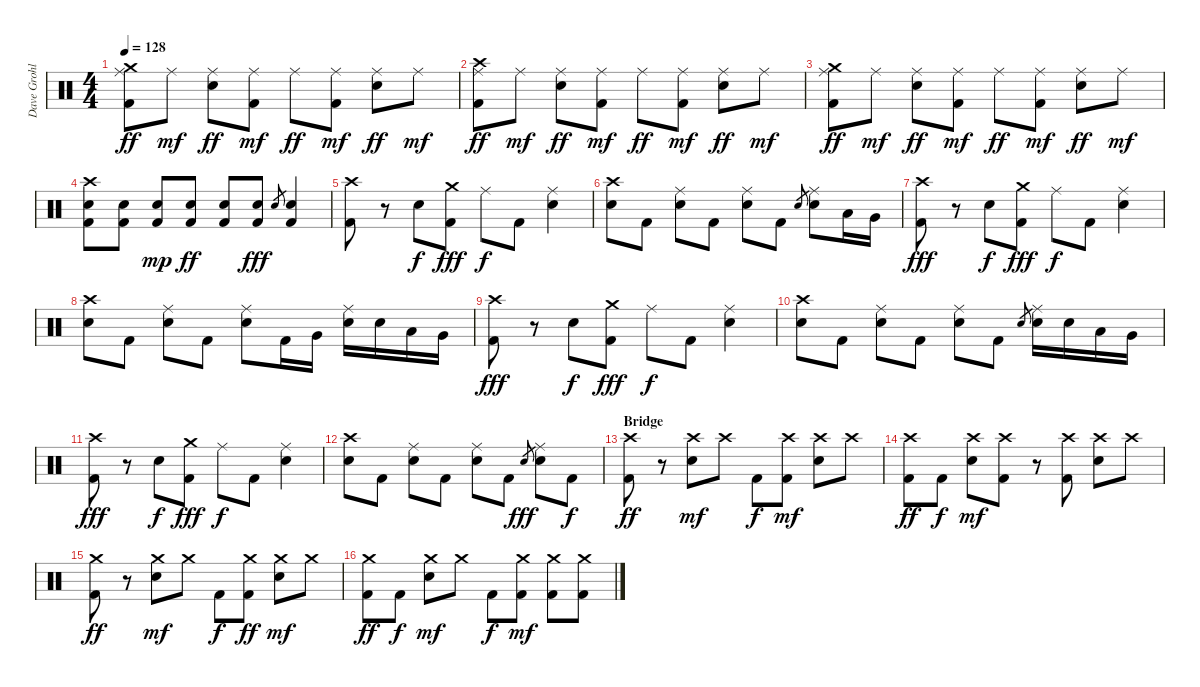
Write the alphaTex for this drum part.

\track ("Dave Grohl" "Dave Grohl") {instrument percussion}
\staff {score}
\articulation defaults
\ts (4 4)
\tempo 128
\clef neutral
\ks c
("Crash medium (hit)" "Ride (middle)" "Kick (hit) 2").8{dy ff} "Ride (middle)".8{dy mf} ("Ride (middle)" "Snare (hit) 2").8{dy ff} ("Ride (middle)" "Kick (hit) 2").8{dy mf} "Ride (middle)".8{dy ff} ("Ride (middle)" "Kick (hit) 2").8{dy mf} ("Ride (middle)" "Snare (hit) 2").8{dy ff} "Ride (middle)".8{dy mf} |
("Crash high (hit)" "Ride (middle)" "Kick (hit) 2").8{dy ff} "Ride (middle)".8{dy mf} ("Ride (middle)" "Snare (hit) 2").8{dy ff} ("Ride (middle)" "Kick (hit) 2").8{dy mf} "Ride (middle)".8{dy ff} ("Ride (middle)" "Kick (hit) 2").8{dy mf} ("Ride (middle)" "Snare (hit) 2").8{dy ff} "Ride (middle)".8{dy mf} |
("Crash medium (hit)" "Ride (middle)" "Kick (hit) 2").8{dy ff} "Ride (middle)".8{dy mf} ("Ride (middle)" "Snare (hit) 2").8{dy ff} ("Ride (middle)" "Kick (hit) 2").8{dy mf} "Ride (middle)".8{dy ff} ("Ride (middle)" "Kick (hit) 2").8{dy mf} ("Ride (middle)" "Snare (hit) 2").8{dy ff} "Ride (middle)".8{dy mf} |
("Crash high (hit)" "Snare (hit) 2" "Kick (hit) 2").8 ("Snare (hit) 2" "Kick (hit) 2").8 ("Snare (hit) 2" "Kick (hit) 2").8{dy mp} ("Snare (hit) 2" "Kick (hit) 2").8{dy ff} ("Snare (hit) 2" "Kick (hit) 2").8 ("Snare (hit) 2" "Kick (hit) 2").8{dy fff} "Snare (hit) 2".8{gr} ("Snare (hit) 2" "Kick (hit) 2").4 |
("Crash high (hit)" "Kick (hit) 2").8 r.8 "Snare (hit) 2".8{dy f} ("Crash medium (hit)" "Kick (hit) 2").8{dy fff} "Ride (middle)".8{dy f} "Kick (hit) 2".8 ("Ride (middle)" "Snare (hit) 2").4 |
("Crash high (hit)" "Snare (hit) 2").8 "Kick (hit) 2".8 ("Ride (middle)" "Snare (hit) 2").8 "Kick (hit) 2".8 ("Ride (middle)" "Snare (hit) 2").8 "Kick (hit) 2".8 "Snare (hit) 2".8{gr} ("Ride (middle)" "Snare (hit) 2").8 "Low Tom (hit)".16 "Very Low Tom (hit)".16 |
("Crash high (hit)" "Kick (hit) 2").8{dy fff} r.8 "Snare (hit) 2".8{dy f} ("Crash medium (hit)" "Kick (hit) 2").8{dy fff} "Ride (middle)".8{dy f} "Kick (hit) 2".8 ("Ride (middle)" "Snare (hit) 2").4 |
("Crash high (hit)" "Snare (hit) 2").8 "Kick (hit) 2".8 ("Ride (middle)" "Snare (hit) 2").8 "Kick (hit) 2".8 ("Ride (middle)" "Snare (hit) 2").8 "Kick (hit) 2".16 "Very Low Tom (hit)".16 ("Ride (middle)" "Snare (hit) 2").16 "Snare (hit) 2".16 "Low Tom (hit)".16 "Very Low Tom (hit)".16 |
("Crash high (hit)" "Kick (hit) 2").8{dy fff} r.8 "Snare (hit) 2".8{dy f} ("Crash medium (hit)" "Kick (hit) 2").8{dy fff} "Ride (middle)".8{dy f} "Kick (hit) 2".8 ("Ride (middle)" "Snare (hit) 2").4 |
("Crash high (hit)" "Snare (hit) 2").8 "Kick (hit) 2".8 ("Ride (middle)" "Snare (hit) 2").8 "Kick (hit) 2".8 ("Ride (middle)" "Snare (hit) 2").8 "Kick (hit) 2".8 "Snare (hit) 2".8{gr} ("Ride (middle)" "Snare (hit) 2").16 "Snare (hit) 2".16 "Low Tom (hit)".16 "Very Low Tom (hit)".16 |
("Crash high (hit)" "Kick (hit) 2").8{dy fff} r.8 "Snare (hit) 2".8{dy f} ("Crash medium (hit)" "Kick (hit) 2").8{dy fff} "Ride (middle)".8{dy f} "Kick (hit) 2".8 ("Ride (middle)" "Snare (hit) 2").4 |
("Crash high (hit)" "Snare (hit) 2").8 "Kick (hit) 2".8 ("Ride (middle)" "Snare (hit) 2").8 "Kick (hit) 2".8 ("Ride (middle)" "Snare (hit) 2").8 "Kick (hit) 2".8 "Snare (hit) 2".8{gr dy fff} ("Ride (middle)" "Snare (hit) 2").8 "Kick (hit) 2".8{dy f} |
\section ("" "Bridge")
("Crash high (hit)" "Kick (hit) 2").8{dy ff} r.8 ("Crash high (hit)" "Snare (hit) 2").8{dy mf} "Crash high (hit)".8 "Kick (hit) 2".8{dy f} ("Crash high (hit)" "Kick (hit) 2").8{dy mf} ("Crash high (hit)" "Snare (hit) 2").8 "Crash high (hit)".8 |
("Crash high (hit)" "Kick (hit) 2").8{dy ff} "Kick (hit) 2".8{dy f} ("Crash high (hit)" "Snare (hit) 2").8{dy mf} ("Crash high (hit)" "Kick (hit) 2").8 r.8 ("Crash high (hit)" "Kick (hit) 2").8 ("Crash high (hit)" "Snare (hit) 2").8 "Crash high (hit)".8 |
("Crash medium (hit)" "Kick (hit) 2").8{dy ff} r.8 ("Crash medium (hit)" "Snare (hit) 2").8{dy mf} "Crash medium (hit)".8 "Kick (hit) 2".8{dy f} ("Crash medium (hit)" "Kick (hit) 2").8{dy ff} ("Crash medium (hit)" "Snare (hit) 2").8{dy mf} "Crash medium (hit)".8 |
("Crash medium (hit)" "Kick (hit) 2").8{dy ff} "Kick (hit) 2".8{dy f} ("Crash medium (hit)" "Snare (hit) 2").8{dy mf} "Crash medium (hit)".8 "Kick (hit) 2".8{dy f} ("Crash medium (hit)" "Kick (hit) 2").8{dy mf} ("Crash medium (hit)" "Kick (hit) 2").8 ("Crash medium (hit)" "Kick (hit) 2").8
